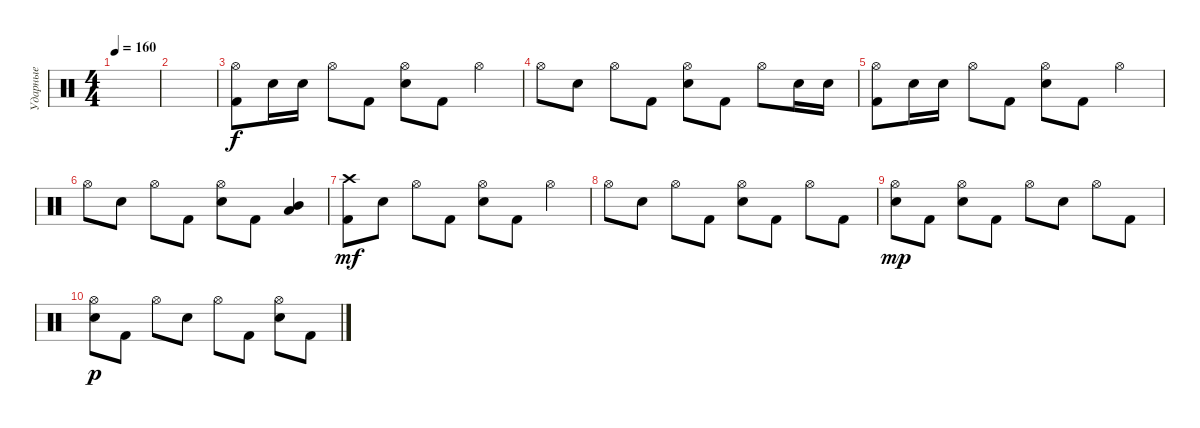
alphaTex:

\track ("Ударные" "Ударные") {instrument percussion}
\staff {score}
\articulation defaults
\ts (4 4)
\tempo 160
\clef neutral
\ks c
|
|
("Hi-Hat (open)" "Kick (hit) 2").8 "Snare (hit) 2".16 "Snare (hit) 2".16 "Hi-Hat (open)".8 "Kick (hit) 2".8 ("Hi-Hat (open)" "Snare (hit) 2").8 "Kick (hit) 2".8 "Hi-Hat (open)".4 |
"Hi-Hat (open)".8 "Snare (hit) 2".8 "Hi-Hat (open)".8 "Kick (hit) 2".8 ("Hi-Hat (open)" "Snare (hit) 2").8 "Kick (hit) 2".8 "Hi-Hat (open)".8 "Snare (hit) 2".16 "Snare (hit) 2".16 |
("Hi-Hat (open)" "Kick (hit) 2").8 "Snare (hit) 2".16 "Snare (hit) 2".16 "Hi-Hat (open)".8 "Kick (hit) 2".8 ("Hi-Hat (open)" "Snare (hit) 2").8 "Kick (hit) 2".8 "Hi-Hat (open)".4 |
"Hi-Hat (open)".8 "Snare (hit) 2".8 "Hi-Hat (open)".8 "Kick (hit) 2".8 ("Hi-Hat (open)" "Snare (hit) 2").8 "Kick (hit) 2".8 ("Mid Tom (hit)" "Low Tom (hit)").4 |
("Crash high (hit)" "Kick (hit) 2").8{dy mf} "Snare (hit) 2".8 "Hi-Hat (open)".8 "Kick (hit) 2".8 ("Hi-Hat (open)" "Snare (hit) 2").8 "Kick (hit) 2".8 "Hi-Hat (open)".4 |
"Hi-Hat (open)".8 "Snare (hit) 2".8 "Hi-Hat (open)".8 "Kick (hit) 2".8 ("Hi-Hat (open)" "Snare (hit) 2").8 "Kick (hit) 2".8 "Hi-Hat (open)".8 "Kick (hit) 2".8 |
("Hi-Hat (open)" "Snare (hit) 2").8{dy mp} "Kick (hit) 2".8 ("Hi-Hat (open)" "Snare (hit) 2").8 "Kick (hit) 2".8 "Hi-Hat (open)".8 "Snare (hit) 2".8 "Hi-Hat (open)".8 "Kick (hit) 2".8 |
("Hi-Hat (open)" "Snare (hit) 2").8{dy p} "Kick (hit) 2".8 "Hi-Hat (open)".8 "Snare (hit) 2".8 "Hi-Hat (open)".8 "Kick (hit) 2".8 ("Hi-Hat (open)" "Snare (hit) 2").8 "Kick (hit) 2".8
